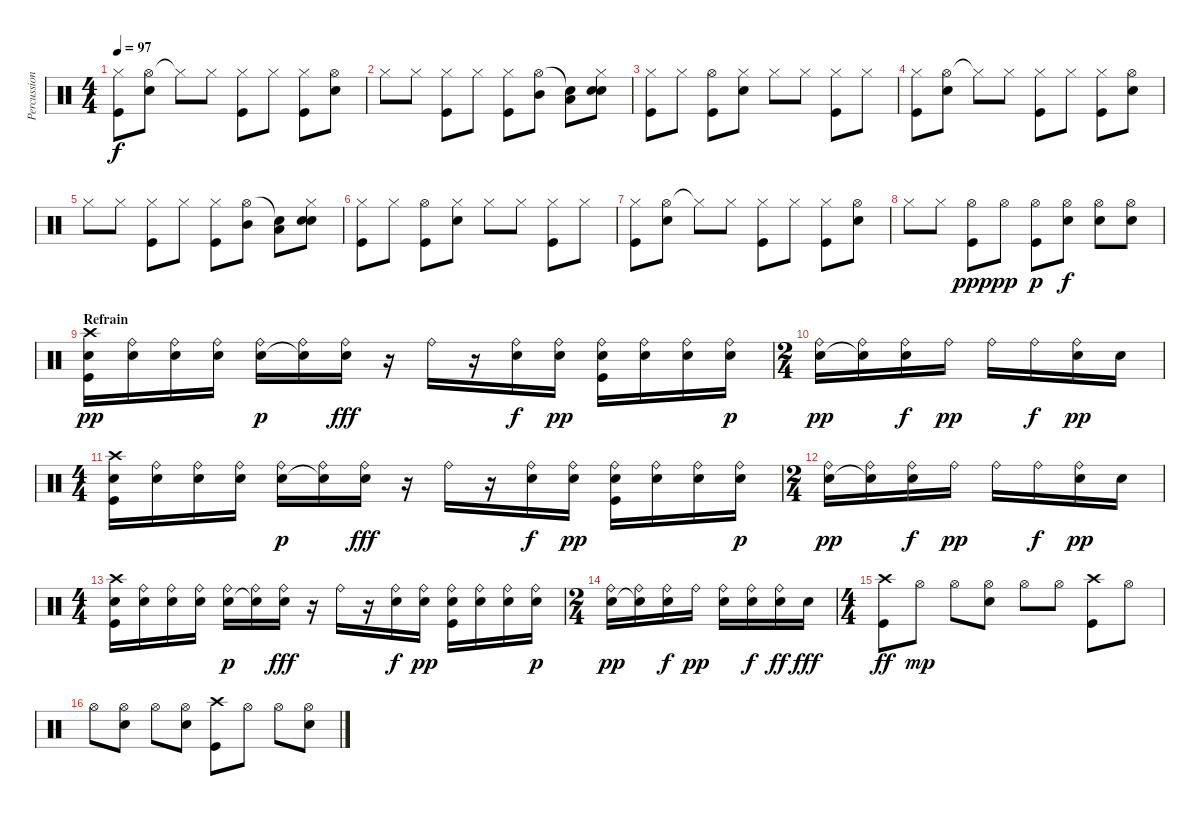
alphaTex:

\track ("Percussions (Etn)" "Percussion") {instrument percussion}
\staff {score}
\articulation defaults
\ts (4 4)
\tempo 97
\clef neutral
\ks c
("Hi-Hat (closed)" "Kick (hit)").8{dy f} ("Hi-Hat (open)" "Electric Snare (hit)").8 "Hi-Hat (closed)"{t}.8 "Hi-Hat (closed)".8 ("Hi-Hat (closed)" "Kick (hit)").8 "Hi-Hat (closed)".8 ("Hi-Hat (closed)" "Kick (hit)").8 ("Hi-Hat (open)" "Electric Snare (hit)").8 |
"Hi-Hat (closed)".8 "Hi-Hat (closed)".8 ("Hi-Hat (closed)" "Kick (hit)").8 "Hi-Hat (closed)".8 ("Hi-Hat (closed)" "Kick (hit)").8 ("Hi-Hat (open)" "Mid Tom (hit)").8 ("Snare (hit)"{t} "Low Tom (hit)").8 ("Hi-Hat (closed)" "Electric Snare (hit)" "Electric Snare (hit)").8{bd 60} |
("Hi-Hat (closed)" "Kick (hit)").8 "Hi-Hat (closed)".8 ("Hi-Hat (open)" "Kick (hit)").8 ("Hi-Hat (closed)" "Electric Snare (hit)").8 "Hi-Hat (closed)".8 "Hi-Hat (closed)".8 ("Hi-Hat (closed)" "Kick (hit)").8 "Hi-Hat (closed)".8 |
("Hi-Hat (closed)" "Kick (hit)").8 ("Hi-Hat (open)" "Electric Snare (hit)").8 "Hi-Hat (closed)"{t}.8 "Hi-Hat (closed)".8 ("Hi-Hat (closed)" "Kick (hit)").8 "Hi-Hat (closed)".8 ("Hi-Hat (closed)" "Kick (hit)").8 ("Hi-Hat (open)" "Electric Snare (hit)").8 |
"Hi-Hat (closed)".8 "Hi-Hat (closed)".8 ("Hi-Hat (closed)" "Kick (hit)").8 "Hi-Hat (closed)".8 ("Hi-Hat (closed)" "Kick (hit)").8 ("Hi-Hat (open)" "Mid Tom (hit)").8 ("Snare (hit)"{t} "Low Tom (hit)").8 ("Hi-Hat (closed)" "Electric Snare (hit)" "Electric Snare (hit)").8{bd 60} |
("Hi-Hat (closed)" "Kick (hit)").8 "Hi-Hat (closed)".8 ("Hi-Hat (open)" "Kick (hit)").8 ("Hi-Hat (closed)" "Electric Snare (hit)").8 "Hi-Hat (closed)".8 "Hi-Hat (closed)".8 ("Hi-Hat (closed)" "Kick (hit)").8 "Hi-Hat (closed)".8 |
("Hi-Hat (closed)" "Kick (hit)").8 ("Hi-Hat (open)" "Electric Snare (hit)").8 "Hi-Hat (closed)"{t}.8 "Hi-Hat (closed)".8 ("Hi-Hat (closed)" "Kick (hit)").8 "Hi-Hat (closed)".8 ("Hi-Hat (closed)" "Kick (hit)").8 ("Hi-Hat (open)" "Electric Snare (hit)").8 |
\section ("" "")
"Hi-Hat (closed)".8 "Hi-Hat (closed)".8 ("Hi-Hat (open)" "Kick (hit)").8{dy ppp} "Hi-Hat (open)".8{dy pp} ("Hi-Hat (open)" "Kick (hit)").8{dy p} ("Hi-Hat (open)" "Electric Snare (hit)").8{dy f} ("Hi-Hat (open)" "Electric Snare (hit)").8 ("Hi-Hat (open)" "Electric Snare (hit)").8 |
\section ("" "Refrain")
("Crash high (hit)" "Electric Snare (hit)" "Kick (hit)").16{dy pp} ("Ride (bell)" "Electric Snare (hit)").16 ("Ride (bell)" "Electric Snare (hit)").16 ("Ride (bell)" "Electric Snare (hit)").16 ("Ride (bell)" "Electric Snare (hit)").16{dy p} ("Ride (bell)" "Snare (hit)"{t}).16 ("Ride (bell)" "Electric Snare (hit)").16{dy fff} r.16 "Ride (bell)".16 r.16 ("Ride (bell)" "Electric Snare (hit)").16{dy f} ("Ride (bell)" "Electric Snare (hit)").16{dy pp} ("Ride (bell)" "Electric Snare (hit)" "Kick (hit)").16 ("Ride (bell)" "Electric Snare (hit)").16 ("Ride (bell)" "Electric Snare (hit)").16 ("Ride (bell)" "Electric Snare (hit)").16{dy p} |
\ts (2 4)
("Ride (bell)" "Electric Snare (hit)").16{dy pp} ("Ride (bell)" "Snare (hit)"{t}).16 ("Ride (bell)" "Electric Snare (hit)").16{dy f} "Ride (bell)".16{dy pp} "Ride (bell)".16 "Ride (bell)".16{dy f} ("Ride (bell)" "Electric Snare (hit)").16{dy pp} "Electric Snare (hit)".16 |
\ts (4 4)
("Crash high (hit)" "Electric Snare (hit)" "Kick (hit)").16 ("Ride (bell)" "Electric Snare (hit)").16 ("Ride (bell)" "Electric Snare (hit)").16 ("Ride (bell)" "Electric Snare (hit)").16 ("Ride (bell)" "Electric Snare (hit)").16{dy p} ("Ride (bell)" "Snare (hit)"{t}).16 ("Ride (bell)" "Electric Snare (hit)").16{dy fff} r.16 "Ride (bell)".16 r.16 ("Ride (bell)" "Electric Snare (hit)").16{dy f} ("Ride (bell)" "Electric Snare (hit)").16{dy pp} ("Ride (bell)" "Electric Snare (hit)" "Kick (hit)").16 ("Ride (bell)" "Electric Snare (hit)").16 ("Ride (bell)" "Electric Snare (hit)").16 ("Ride (bell)" "Electric Snare (hit)").16{dy p} |
\ts (2 4)
("Ride (bell)" "Electric Snare (hit)").16{dy pp} ("Ride (bell)" "Snare (hit)"{t}).16 ("Ride (bell)" "Electric Snare (hit)").16{dy f} "Ride (bell)".16{dy pp} "Ride (bell)".16 "Ride (bell)".16{dy f} ("Ride (bell)" "Electric Snare (hit)").16{dy pp} "Electric Snare (hit)".16 |
\ts (4 4)
("Crash high (hit)" "Electric Snare (hit)" "Kick (hit)").16 ("Ride (bell)" "Electric Snare (hit)").16 ("Ride (bell)" "Electric Snare (hit)").16 ("Ride (bell)" "Electric Snare (hit)").16 ("Ride (bell)" "Electric Snare (hit)").16{dy p} ("Ride (bell)" "Snare (hit)"{t}).16 ("Ride (bell)" "Electric Snare (hit)").16{dy fff} r.16 "Ride (bell)".16 r.16 ("Ride (bell)" "Electric Snare (hit)").16{dy f} ("Ride (bell)" "Electric Snare (hit)").16{dy pp} ("Ride (bell)" "Electric Snare (hit)" "Kick (hit)").16 ("Ride (bell)" "Electric Snare (hit)").16 ("Ride (bell)" "Electric Snare (hit)").16 ("Ride (bell)" "Electric Snare (hit)").16{dy p} |
\ts (2 4)
("Ride (bell)" "Electric Snare (hit)").16{dy pp} ("Ride (bell)" "Snare (hit)"{t}).16 ("Ride (bell)" "Electric Snare (hit)").16{dy f} "Ride (bell)".16{dy pp} ("Ride (bell)" "Electric Snare (hit)").16 ("Ride (bell)" "Electric Snare (hit)").16{dy f} ("Ride (bell)" "Electric Snare (hit)").16{dy ff} "Electric Snare (hit)".16{dy fff} |
\ts (4 4)
("Crash high (hit)" "Kick (hit)").8{dy ff} "Hi-Hat (open)".8{dy mp} "Hi-Hat (open)".8 ("Hi-Hat (open)" "Electric Snare (hit)").8 "Hi-Hat (open)".8 "Hi-Hat (open)".8 ("Crash high (hit)" "Kick (hit)").8 "Hi-Hat (open)".8 |
"Hi-Hat (open)".8 ("Hi-Hat (open)" "Electric Snare (hit)").8 "Hi-Hat (open)".8 ("Hi-Hat (open)" "Electric Snare (hit)").8 ("Crash high (hit)" "Kick (hit)").8 "Hi-Hat (open)".8 "Hi-Hat (open)".8 ("Hi-Hat (open)" "Electric Snare (hit)").8
